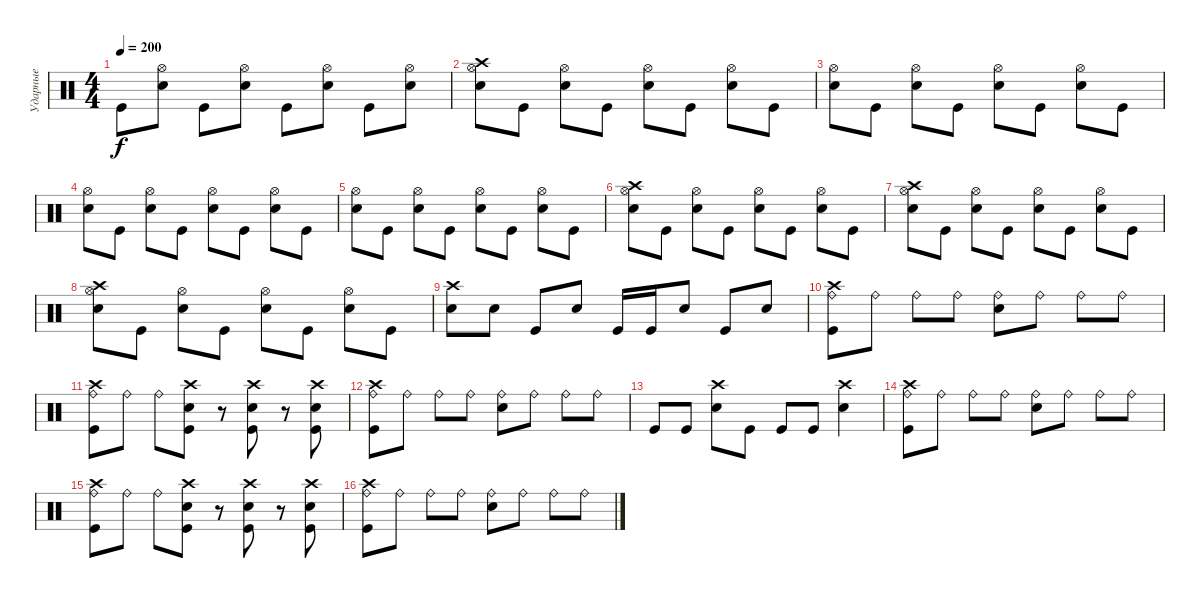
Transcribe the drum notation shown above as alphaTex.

\track ("Ударные" "Ударные") {instrument percussion}
\staff {score}
\articulation defaults
\ts (4 4)
\tempo 200
\clef neutral
\ks c "Kick (hit)".8{dy f}
("Hi-Hat (open)" "Electric Snare (hit)").8 "Kick (hit)".8 ("Hi-Hat (open)" "Electric Snare (hit)").8 "Kick (hit)".8 ("Hi-Hat (open)" "Electric Snare (hit)").8 "Kick (hit)".8 ("Hi-Hat (open)" "Electric Snare (hit)").8 |
("Hi-Hat (open)" "Electric Snare (hit)" "Crash high (hit)").8 "Kick (hit)".8 ("Hi-Hat (open)" "Electric Snare (hit)").8 "Kick (hit)".8 ("Hi-Hat (open)" "Electric Snare (hit)").8 "Kick (hit)".8 ("Hi-Hat (open)" "Electric Snare (hit)").8 "Kick (hit)".8 |
("Hi-Hat (open)" "Electric Snare (hit)").8 "Kick (hit)".8 ("Hi-Hat (open)" "Electric Snare (hit)").8 "Kick (hit)".8 ("Hi-Hat (open)" "Electric Snare (hit)").8 "Kick (hit)".8 ("Hi-Hat (open)" "Electric Snare (hit)").8 "Kick (hit)".8 |
("Hi-Hat (open)" "Electric Snare (hit)").8 "Kick (hit)".8 ("Hi-Hat (open)" "Electric Snare (hit)").8 "Kick (hit)".8 ("Hi-Hat (open)" "Electric Snare (hit)").8 "Kick (hit)".8 ("Hi-Hat (open)" "Electric Snare (hit)").8 "Kick (hit)".8 |
("Hi-Hat (open)" "Electric Snare (hit)").8 "Kick (hit)".8 ("Hi-Hat (open)" "Electric Snare (hit)").8 "Kick (hit)".8 ("Hi-Hat (open)" "Electric Snare (hit)").8 "Kick (hit)".8 ("Hi-Hat (open)" "Electric Snare (hit)").8 "Kick (hit)".8 |
("Hi-Hat (open)" "Electric Snare (hit)" "Crash high (hit)").8 "Kick (hit)".8 ("Hi-Hat (open)" "Electric Snare (hit)").8 "Kick (hit)".8 ("Hi-Hat (open)" "Electric Snare (hit)").8 "Kick (hit)".8 ("Hi-Hat (open)" "Electric Snare (hit)").8 "Kick (hit)".8 |
("Hi-Hat (open)" "Electric Snare (hit)" "Crash high (hit)").8 "Kick (hit)".8 ("Hi-Hat (open)" "Electric Snare (hit)").8 "Kick (hit)".8 ("Hi-Hat (open)" "Electric Snare (hit)").8 "Kick (hit)".8 ("Hi-Hat (open)" "Electric Snare (hit)").8 "Kick (hit)".8 |
("Hi-Hat (open)" "Electric Snare (hit)" "Crash high (hit)").8 "Kick (hit)".8 ("Hi-Hat (open)" "Electric Snare (hit)").8 "Kick (hit)".8 ("Hi-Hat (open)" "Electric Snare (hit)").8 "Kick (hit)".8 ("Hi-Hat (open)" "Electric Snare (hit)").8 "Kick (hit)".8 |
("Electric Snare (hit)" "Crash high (hit)").8 "Electric Snare (hit)".8 "Kick (hit)".8 "Electric Snare (hit)".8 "Kick (hit)".16 "Kick (hit)".16 "Electric Snare (hit)".8 "Kick (hit)".8 "Electric Snare (hit)".8 |
("Ride (bell)" "Crash high (hit)" "Kick (hit)").8 "Ride (bell)".8 "Ride (bell)".8 "Ride (bell)".8 ("Ride (bell)" "Electric Snare (hit)").8 "Ride (bell)".8 "Ride (bell)".8 "Ride (bell)".8 |
("Ride (bell)" "Crash high (hit)" "Kick (hit)").8 "Ride (bell)".8 "Ride (bell)".8 ("Electric Snare (hit)" "Crash high (hit)" "Kick (hit)").8 r.8 ("Electric Snare (hit)" "Crash high (hit)" "Kick (hit)").8 r.8 ("Electric Snare (hit)" "Crash high (hit)" "Kick (hit)").8 |
("Ride (bell)" "Crash high (hit)" "Kick (hit)").8 "Ride (bell)".8 "Ride (bell)".8 "Ride (bell)".8 ("Ride (bell)" "Electric Snare (hit)").8 "Ride (bell)".8 "Ride (bell)".8 "Ride (bell)".8 |
"Kick (hit)".8 "Kick (hit)".8 ("Electric Snare (hit)" "Crash high (hit)").8 "Kick (hit)".8 "Kick (hit)".8 "Kick (hit)".8 ("Electric Snare (hit)" "Crash high (hit)").4 |
("Ride (bell)" "Crash high (hit)" "Kick (hit)").8 "Ride (bell)".8 "Ride (bell)".8 "Ride (bell)".8 ("Ride (bell)" "Electric Snare (hit)").8 "Ride (bell)".8 "Ride (bell)".8 "Ride (bell)".8 |
("Ride (bell)" "Crash high (hit)" "Kick (hit)").8 "Ride (bell)".8 "Ride (bell)".8 ("Electric Snare (hit)" "Crash high (hit)" "Kick (hit)").8 r.8 ("Electric Snare (hit)" "Crash high (hit)" "Kick (hit)").8 r.8 ("Electric Snare (hit)" "Crash high (hit)" "Kick (hit)").8 |
("Ride (bell)" "Crash high (hit)" "Kick (hit)").8 "Ride (bell)".8 "Ride (bell)".8 "Ride (bell)".8 ("Ride (bell)" "Electric Snare (hit)").8 "Ride (bell)".8 "Ride (bell)".8 "Ride (bell)".8
